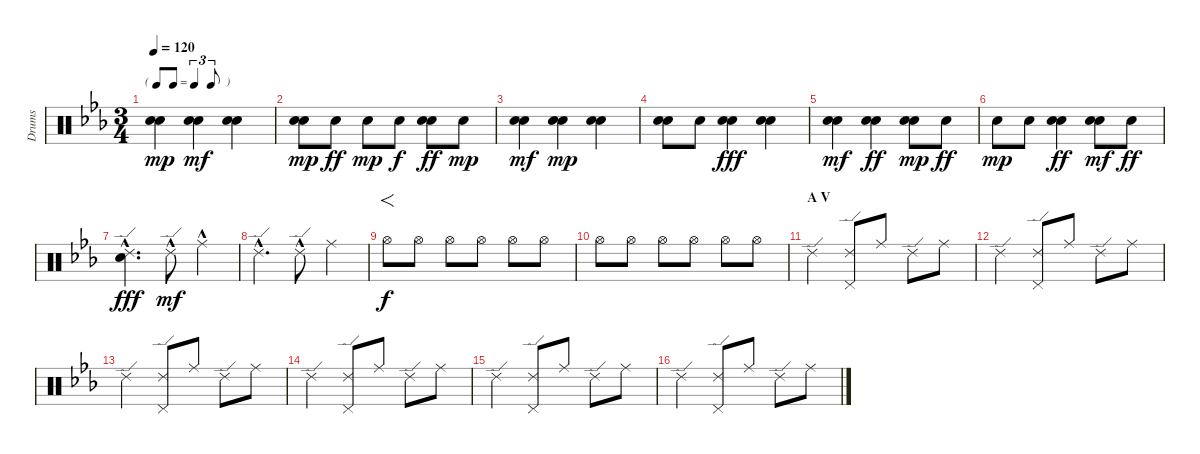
\track ("Drums" "Drums") {instrument percussion}
\staff {score}
\articulation defaults
\ts (3 4)
\tf triplet8th
\tempo 120
\clef neutral
\ks cminor
("Electric Snare (hit)" "Snare (hit) 2").4{dy mp} ("Electric Snare (hit)" "Snare (hit) 2").4{dy mf} ("Electric Snare (hit)" "Snare (hit) 2").4 |
("Electric Snare (hit)" "Snare (hit) 2").8{dy mp} "Snare (hit) 2".8{dy ff} "Electric Snare (hit)".8{dy mp} "Snare (hit) 2".8{dy f} ("Electric Snare (hit)" "Snare (hit) 2").8{dy ff} "Snare (hit) 2".8{dy mp} |
("Electric Snare (hit)" "Snare (hit) 2").4{dy mf} ("Electric Snare (hit)" "Snare (hit) 2").4{dy mp} ("Electric Snare (hit)" "Snare (hit) 2").4 |
("Electric Snare (hit)" "Snare (hit) 2").8 "Snare (hit) 2".8 ("Electric Snare (hit)" "Snare (hit) 2").4{dy fff} ("Electric Snare (hit)" "Snare (hit) 2").4 |
("Electric Snare (hit)" "Snare (hit) 2").4{dy mf} ("Electric Snare (hit)" "Snare (hit) 2").4{dy ff} ("Electric Snare (hit)" "Snare (hit) 2").8{dy mp} "Snare (hit) 2".8{dy ff} |
"Electric Snare (hit)".8{dy mp} "Snare (hit) 2".8 ("Electric Snare (hit)" "Snare (hit) 2").4{dy ff} ("Electric Snare (hit)" "Snare (hit) 2").8{dy mf} "Snare (hit) 2".8{dy ff} |
("Ride (edge) 2"{hac} "Snare (hit) 2"{hac}).4{d dy fff} "Ride (edge) 2"{hac}.8{dy mf} "Ride (middle)"{hac}.4 |
"Ride (edge) 2"{hac}.4{d} "Ride (edge) 2"{hac}.8 "Ride (middle)".4 |
"Hi-Hat (open)".8{f dy f} "Hi-Hat (open)".8 "Hi-Hat (open)".8 "Hi-Hat (open)".8 "Hi-Hat (open)".8 "Hi-Hat (open)".8 |
"Hi-Hat (open)".8 "Hi-Hat (open)".8 "Hi-Hat (open)".8 "Hi-Hat (open)".8 "Hi-Hat (open)".8 "Hi-Hat (open)".8 |
\section ("" "A V")
"Ride (edge) 2".4 ("Ride (edge) 2" "Pedal Hi-Hat (hit)").8 "Ride (middle)".8 "Ride (edge) 2".8 "Ride (middle)".8 |
"Ride (edge) 2".4 ("Ride (edge) 2" "Pedal Hi-Hat (hit)").8 "Ride (middle)".8 "Ride (edge) 2".8 "Ride (middle)".8 |
"Ride (edge) 2".4 ("Ride (edge) 2" "Pedal Hi-Hat (hit)").8 "Ride (middle)".8 "Ride (edge) 2".8 "Ride (middle)".8 |
"Ride (edge) 2".4 ("Ride (edge) 2" "Pedal Hi-Hat (hit)").8 "Ride (middle)".8 "Ride (edge) 2".8 "Ride (middle)".8 |
"Ride (edge) 2".4 ("Ride (edge) 2" "Pedal Hi-Hat (hit)").8 "Ride (middle)".8 "Ride (edge) 2".8 "Ride (middle)".8 |
"Ride (edge) 2".4 ("Ride (edge) 2" "Pedal Hi-Hat (hit)").8 "Ride (middle)".8 "Ride (edge) 2".8 "Ride (middle)".8
